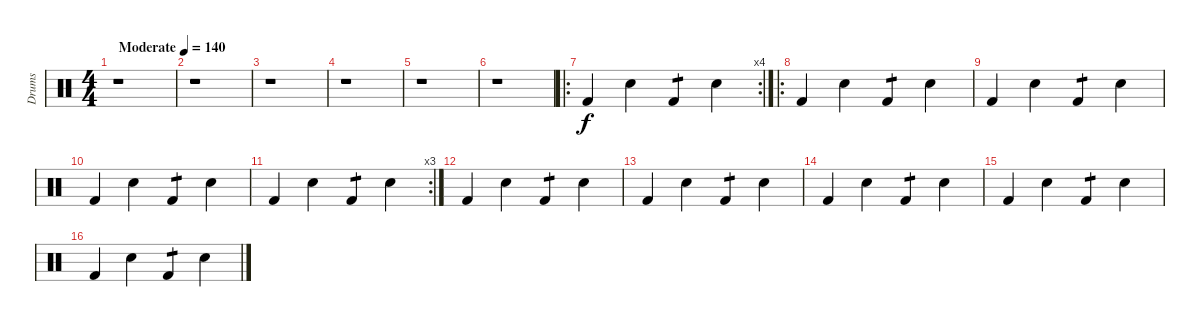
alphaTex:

\track ("Drums" "Drums") {instrument percussion}
\staff {score}
\articulation defaults
\ts (4 4)
\tempo (140 "Moderate")
\clef neutral
\ks c
r.1{dy f} |
r.1 |
r.1 |
r.1 |
r.1 |
r.1 |
\ro
\rc 4 "Kick (hit) 2".4 "Snare (hit) 2".4 "Kick (hit) 2".4{tp 1} "Snare (hit) 2".4
|
\ro "Kick (hit) 2".4 "Snare (hit) 2".4 "Kick (hit) 2".4{tp 1} "Snare (hit) 2".4
|
"Kick (hit) 2".4 "Snare (hit) 2".4 "Kick (hit) 2".4{tp 1} "Snare (hit) 2".4 |
"Kick (hit) 2".4 "Snare (hit) 2".4 "Kick (hit) 2".4{tp 1} "Snare (hit) 2".4 |
\rc 3 "Kick (hit) 2".4 "Snare (hit) 2".4 "Kick (hit) 2".4{tp 1} "Snare (hit) 2".4
|
"Kick (hit) 2".4 "Snare (hit) 2".4 "Kick (hit) 2".4{tp 1} "Snare (hit) 2".4 |
"Kick (hit) 2".4 "Snare (hit) 2".4 "Kick (hit) 2".4{tp 1} "Snare (hit) 2".4 |
"Kick (hit) 2".4 "Snare (hit) 2".4 "Kick (hit) 2".4{tp 1} "Snare (hit) 2".4 |
"Kick (hit) 2".4 "Snare (hit) 2".4 "Kick (hit) 2".4{tp 1} "Snare (hit) 2".4 |
"Kick (hit) 2".4 "Snare (hit) 2".4 "Kick (hit) 2".4{tp 1} "Snare (hit) 2".4
